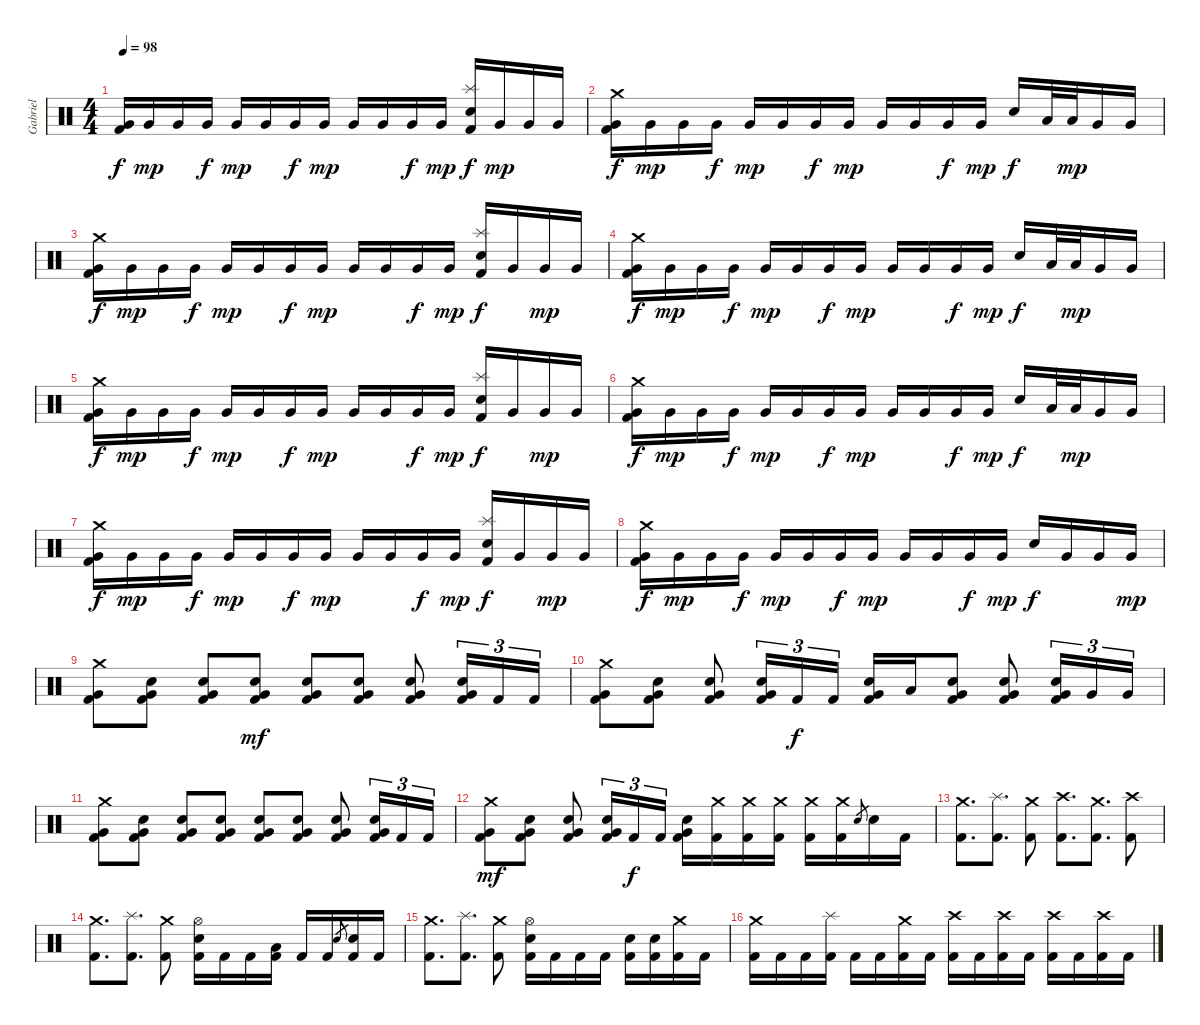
\track ("Gabriel" "Gabriel") {instrument percussion}
\staff {score}
\articulation defaults
\ts (4 4)
\tempo 98
\clef neutral
\ks c
("Very Low Tom (hit)" "Kick (hit) 2").16{dy f} "Very Low Tom (hit)".16{dy mp} "Very Low Tom (hit)".16 "Very Low Tom (hit)".16{dy f} "Very Low Tom (hit)".16{dy mp} "Very Low Tom (hit)".16 "Very Low Tom (hit)".16{dy f} "Very Low Tom (hit)".16{dy mp} "Very Low Tom (hit)".16 "Very Low Tom (hit)".16 "Very Low Tom (hit)".16{dy f} "Very Low Tom (hit)".16{dy mp} ("Splash (hit)" "Electric Snare (hit)" "Kick (hit) 2").16{dy f} "Very Low Tom (hit)".16{dy mp} "Very Low Tom (hit)".16 "Very Low Tom (hit)".16 |
("Crash medium (hit)" "Very Low Tom (hit)" "Kick (hit) 2").16{dy f} "Very Low Tom (hit)".16{dy mp} "Very Low Tom (hit)".16 "Very Low Tom (hit)".16{dy f} "Very Low Tom (hit)".16{dy mp} "Very Low Tom (hit)".16 "Very Low Tom (hit)".16{dy f} "Very Low Tom (hit)".16{dy mp} "Very Low Tom (hit)".16 "Very Low Tom (hit)".16 "Very Low Tom (hit)".16{dy f} "Very Low Tom (hit)".16{dy mp} "Electric Snare (hit)".16{dy f} "Low Tom (hit)".32 "Low Tom (hit)".32{dy mp} "Very Low Tom (hit)".16 "Very Low Tom (hit)".16 |
("Crash medium (hit)" "Very Low Tom (hit)" "Kick (hit) 2").16{dy f} "Very Low Tom (hit)".16{dy mp} "Very Low Tom (hit)".16 "Very Low Tom (hit)".16{dy f} "Very Low Tom (hit)".16{dy mp} "Very Low Tom (hit)".16 "Very Low Tom (hit)".16{dy f} "Very Low Tom (hit)".16{dy mp} "Very Low Tom (hit)".16 "Very Low Tom (hit)".16 "Very Low Tom (hit)".16{dy f} "Very Low Tom (hit)".16{dy mp} ("Splash (hit)" "Electric Snare (hit)" "Kick (hit) 2").16{dy f} "Very Low Tom (hit)".16 "Very Low Tom (hit)".16{dy mp} "Very Low Tom (hit)".16 |
("Crash medium (hit)" "Very Low Tom (hit)" "Kick (hit) 2").16{dy f} "Very Low Tom (hit)".16{dy mp} "Very Low Tom (hit)".16 "Very Low Tom (hit)".16{dy f} "Very Low Tom (hit)".16{dy mp} "Very Low Tom (hit)".16 "Very Low Tom (hit)".16{dy f} "Very Low Tom (hit)".16{dy mp} "Very Low Tom (hit)".16 "Very Low Tom (hit)".16 "Very Low Tom (hit)".16{dy f} "Very Low Tom (hit)".16{dy mp} "Electric Snare (hit)".16{dy f} "Low Tom (hit)".32 "Low Tom (hit)".32{dy mp} "Very Low Tom (hit)".16 "Very Low Tom (hit)".16 |
("Crash medium (hit)" "Very Low Tom (hit)" "Kick (hit) 2").16{dy f} "Very Low Tom (hit)".16{dy mp} "Very Low Tom (hit)".16 "Very Low Tom (hit)".16{dy f} "Very Low Tom (hit)".16{dy mp} "Very Low Tom (hit)".16 "Very Low Tom (hit)".16{dy f} "Very Low Tom (hit)".16{dy mp} "Very Low Tom (hit)".16 "Very Low Tom (hit)".16 "Very Low Tom (hit)".16{dy f} "Very Low Tom (hit)".16{dy mp} ("Splash (hit)" "Electric Snare (hit)" "Kick (hit) 2").16{dy f} "Very Low Tom (hit)".16 "Very Low Tom (hit)".16{dy mp} "Very Low Tom (hit)".16 |
("Crash medium (hit)" "Very Low Tom (hit)" "Kick (hit) 2").16{dy f} "Very Low Tom (hit)".16{dy mp} "Very Low Tom (hit)".16 "Very Low Tom (hit)".16{dy f} "Very Low Tom (hit)".16{dy mp} "Very Low Tom (hit)".16 "Very Low Tom (hit)".16{dy f} "Very Low Tom (hit)".16{dy mp} "Very Low Tom (hit)".16 "Very Low Tom (hit)".16 "Very Low Tom (hit)".16{dy f} "Very Low Tom (hit)".16{dy mp} "Electric Snare (hit)".16{dy f} "Low Tom (hit)".32 "Low Tom (hit)".32{dy mp} "Very Low Tom (hit)".16 "Very Low Tom (hit)".16 |
("Crash medium (hit)" "Very Low Tom (hit)" "Kick (hit) 2").16{dy f} "Very Low Tom (hit)".16{dy mp} "Very Low Tom (hit)".16 "Very Low Tom (hit)".16{dy f} "Very Low Tom (hit)".16{dy mp} "Very Low Tom (hit)".16 "Very Low Tom (hit)".16{dy f} "Very Low Tom (hit)".16{dy mp} "Very Low Tom (hit)".16 "Very Low Tom (hit)".16 "Very Low Tom (hit)".16{dy f} "Very Low Tom (hit)".16{dy mp} ("Splash (hit)" "Electric Snare (hit)" "Kick (hit) 2").16{dy f} "Very Low Tom (hit)".16 "Very Low Tom (hit)".16{dy mp} "Very Low Tom (hit)".16 |
("Crash medium (hit)" "Very Low Tom (hit)" "Kick (hit) 2").16{dy f} "Very Low Tom (hit)".16{dy mp} "Very Low Tom (hit)".16 "Very Low Tom (hit)".16{dy f} "Very Low Tom (hit)".16{dy mp} "Very Low Tom (hit)".16 "Very Low Tom (hit)".16{dy f} "Very Low Tom (hit)".16{dy mp} "Very Low Tom (hit)".16 "Very Low Tom (hit)".16 "Very Low Tom (hit)".16{dy f} "Very Low Tom (hit)".16{dy mp} "Electric Snare (hit)".16{dy f} "Very Low Tom (hit)".16 "Very Low Tom (hit)".16 "Very Low Tom (hit)".16{dy mp} |
("Crash medium (hit)" "Very Low Tom (hit)" "Kick (hit) 2").8 ("Electric Snare (hit)" "Very Low Tom (hit)" "Kick (hit) 2").8 ("Electric Snare (hit)" "Very Low Tom (hit)" "Kick (hit) 2").8 ("Electric Snare (hit)" "Very Low Tom (hit)" "Kick (hit) 2").8{dy mf} ("Electric Snare (hit)" "Very Low Tom (hit)" "Kick (hit) 2").8 ("Electric Snare (hit)" "Very Low Tom (hit)" "Kick (hit) 2").8 ("Electric Snare (hit)" "Very Low Tom (hit)" "Kick (hit) 2").8 ("Electric Snare (hit)" "Very Low Tom (hit)" "Kick (hit) 2").16{tu (3 2)} "Kick (hit) 2".16{tu (3 2)} "Kick (hit) 2".16{tu (3 2)} |
("Crash medium (hit)" "Very Low Tom (hit)" "Kick (hit) 2").8 ("Electric Snare (hit)" "Very Low Tom (hit)" "Kick (hit) 2").8 ("Electric Snare (hit)" "Very Low Tom (hit)" "Kick (hit) 2").8 ("Electric Snare (hit)" "Very Low Tom (hit)" "Kick (hit) 2").16{tu (3 2)} "Kick (hit) 2".16{tu (3 2) dy f} "Kick (hit) 2".16{tu (3 2)} ("Very Low Tom (hit)" "Electric Snare (hit)" "Kick (hit) 2").16 "Low Tom (hit)".16 ("Very Low Tom (hit)" "Electric Snare (hit)" "Kick (hit) 2").8 ("Very Low Tom (hit)" "Electric Snare (hit)" "Kick (hit) 2").8 ("Very Low Tom (hit)" "Electric Snare (hit)" "Kick (hit) 2").16{tu (3 2)} "Very Low Tom (hit)".16{tu (3 2)} "Very Low Tom (hit)".16{tu (3 2)} |
("Crash medium (hit)" "Very Low Tom (hit)" "Kick (hit) 2").8 ("Electric Snare (hit)" "Very Low Tom (hit)" "Kick (hit) 2").8 ("Electric Snare (hit)" "Very Low Tom (hit)" "Kick (hit) 2").8 ("Electric Snare (hit)" "Very Low Tom (hit)" "Kick (hit) 2").8 ("Electric Snare (hit)" "Very Low Tom (hit)" "Kick (hit) 2").8 ("Electric Snare (hit)" "Very Low Tom (hit)" "Kick (hit) 2").8 ("Electric Snare (hit)" "Very Low Tom (hit)" "Kick (hit) 2").8 ("Electric Snare (hit)" "Very Low Tom (hit)" "Kick (hit) 2").16{tu (3 2)} "Kick (hit) 2".16{tu (3 2)} "Kick (hit) 2".16{tu (3 2)} |
("Crash medium (hit)" "Very Low Tom (hit)" "Kick (hit) 2").8{dy mf} ("Electric Snare (hit)" "Very Low Tom (hit)" "Kick (hit) 2").8 ("Electric Snare (hit)" "Very Low Tom (hit)" "Kick (hit) 2").8 ("Electric Snare (hit)" "Very Low Tom (hit)" "Kick (hit) 2").16{tu (3 2)} "Kick (hit) 2".16{tu (3 2) dy f} "Kick (hit) 2".16{tu (3 2)} ("Very Low Tom (hit)" "Electric Snare (hit)" "Kick (hit) 2").16 ("Crash medium (hit)" "Kick (hit) 2").16 ("Crash medium (hit)" "Kick (hit) 2").16 ("Crash medium (hit)" "Kick (hit) 2").16 ("Crash medium (hit)" "Kick (hit) 2").16 ("Crash medium (hit)" "Kick (hit) 2").16 "Electric Snare (hit)".8{gr} "Electric Snare (hit)".16 "Kick (hit) 2".16 |
("Crash medium (hit)" "Kick (hit) 2").8{d} ("Splash (hit)" "Kick (hit) 2").8{d} ("Crash medium (hit)" "Kick (hit) 2").8 ("Crash high (hit)" "Kick (hit) 2").8{d} ("Crash medium (hit)" "Kick (hit) 2").8{d} ("Crash high (hit)" "Kick (hit) 2").8 |
("Crash medium (hit)" "Kick (hit) 2").8{d} ("Splash (hit)" "Kick (hit) 2").8{d} ("Crash medium (hit)" "Kick (hit) 2").8 ("Hi-Hat (open)" "Electric Snare (hit)" "Kick (hit) 2").16 "Kick (hit) 2".16 "Kick (hit) 2".16 ("Low Tom (hit)" "Kick (hit) 2").16 "Kick (hit) 2".16 "Kick (hit) 2".16 "Electric Snare (hit)".8{gr} ("Electric Snare (hit)" "Kick (hit) 2").16 "Kick (hit) 2".16 |
("Crash medium (hit)" "Kick (hit) 2").8{d} ("Splash (hit)" "Kick (hit) 2").8{d} ("Crash medium (hit)" "Kick (hit) 2").8 ("Hi-Hat (open)" "Electric Snare (hit)" "Kick (hit) 2").16 "Kick (hit) 2".16 "Kick (hit) 2".16 "Kick (hit) 2".16 ("Electric Snare (hit)" "Kick (hit) 2").16 ("Electric Snare (hit)" "Kick (hit) 2").16 ("Crash medium (hit)" "Kick (hit) 2").16 "Kick (hit) 2".16 |
("Crash medium (hit)" "Kick (hit) 2").16 "Kick (hit) 2".16 "Kick (hit) 2".16 ("Splash (hit)" "Kick (hit) 2").16 "Kick (hit) 2".16 "Kick (hit) 2".16 ("Crash medium (hit)" "Kick (hit) 2").16 "Kick (hit) 2".16 ("Crash high (hit)" "Kick (hit) 2").16 "Kick (hit) 2".16 ("Crash high (hit)" "Kick (hit) 2").16 "Kick (hit) 2".16 ("Crash high (hit)" "Kick (hit) 2").16 "Kick (hit) 2".16 ("Crash high (hit)" "Kick (hit) 2").16 "Kick (hit) 2".16
